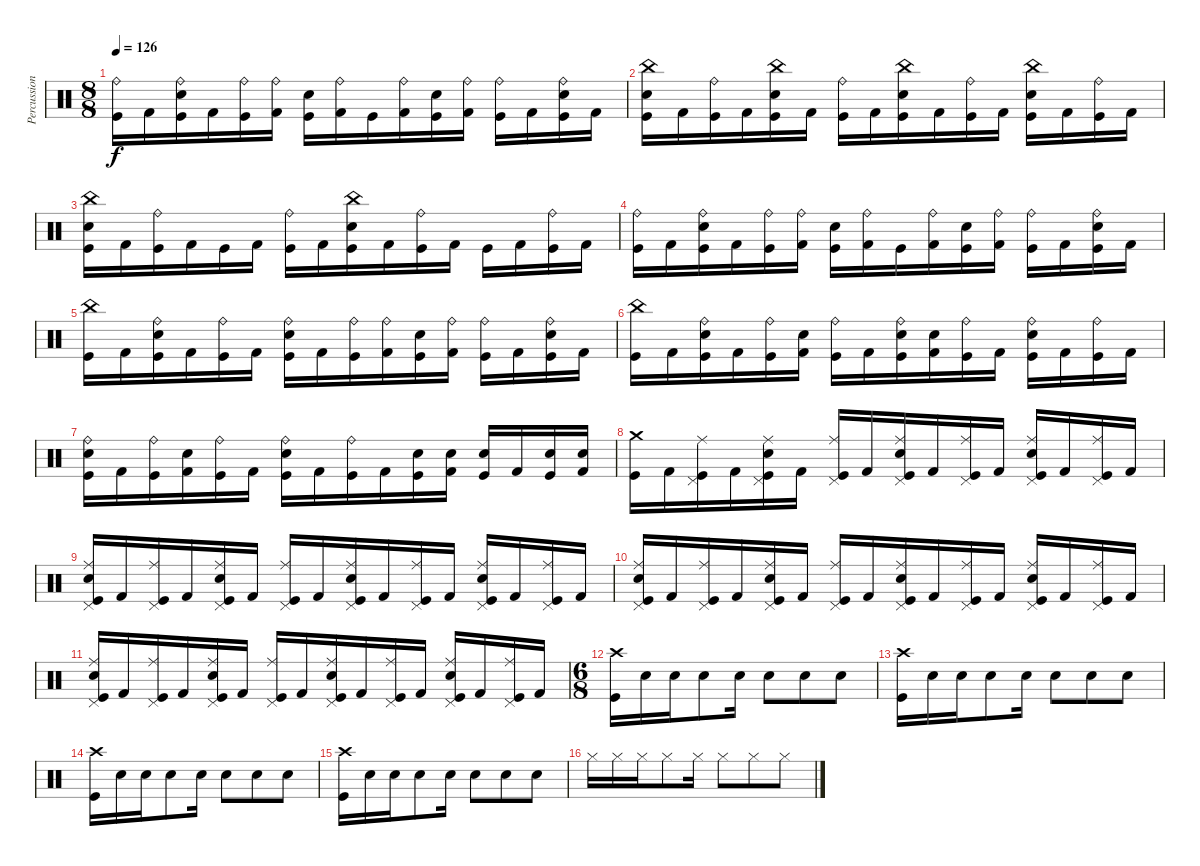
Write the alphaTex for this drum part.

\track ("Percussion" "Percussion") {instrument percussion}
\staff {score}
\articulation defaults
\ts (8 8)
\tempo 126
\clef neutral
\ks c
("Ride (bell)" "Kick (hit)").16{dy f} "Kick (hit) 2".16 ("Ride (bell)" "Electric Snare (hit)" "Kick (hit)").16 "Kick (hit) 2".16 ("Ride (bell)" "Kick (hit)").16 ("Ride (bell)" "Kick (hit) 2").16 ("Electric Snare (hit)" "Kick (hit)").16 ("Ride (bell)" "Kick (hit) 2").16 "Kick (hit)".16 ("Ride (bell)" "Kick (hit) 2").16 ("Electric Snare (hit)" "Kick (hit)").16 ("Ride (bell)" "Kick (hit) 2").16 ("Ride (bell)" "Kick (hit)").16 "Kick (hit) 2".16 ("Ride (bell)" "Electric Snare (hit)" "Kick (hit)").16 "Kick (hit) 2".16 |
("China (hit)" "Snare (hit) 2" "Kick (hit)").16 "Kick (hit) 2".16 ("Ride (bell)" "Kick (hit)").16 "Kick (hit) 2".16 ("China (hit)" "Snare (hit) 2" "Kick (hit)").16 "Kick (hit) 2".16 ("Ride (bell)" "Kick (hit)").16 "Kick (hit) 2".16 ("China (hit)" "Snare (hit) 2" "Kick (hit)").16 "Kick (hit) 2".16 ("Ride (bell)" "Kick (hit)").16 "Kick (hit) 2".16 ("China (hit)" "Snare (hit) 2" "Kick (hit)").16 "Kick (hit) 2".16 ("Ride (bell)" "Kick (hit)").16 "Kick (hit) 2".16 |
("China (hit)" "Snare (hit) 2" "Kick (hit)").16 "Kick (hit) 2".16 ("Ride (bell)" "Kick (hit)").16 "Kick (hit) 2".16 "Kick (hit)".16 "Kick (hit) 2".16 ("Ride (bell)" "Kick (hit)").16 "Kick (hit) 2".16 ("China (hit)" "Snare (hit) 2" "Kick (hit)").16 "Kick (hit) 2".16 ("Ride (bell)" "Kick (hit)").16 "Kick (hit) 2".16 "Kick (hit)".16 "Kick (hit) 2".16 ("Ride (bell)" "Kick (hit)").16 "Kick (hit) 2".16 |
("Ride (bell)" "Kick (hit)").16 "Kick (hit) 2".16 ("Ride (bell)" "Electric Snare (hit)" "Kick (hit)").16 "Kick (hit) 2".16 ("Ride (bell)" "Kick (hit)").16 ("Ride (bell)" "Kick (hit) 2").16 ("Electric Snare (hit)" "Kick (hit)").16 ("Ride (bell)" "Kick (hit) 2").16 "Kick (hit)".16 ("Ride (bell)" "Kick (hit) 2").16 ("Electric Snare (hit)" "Kick (hit)").16 ("Ride (bell)" "Kick (hit) 2").16 ("Ride (bell)" "Kick (hit)").16 "Kick (hit) 2".16 ("Ride (bell)" "Electric Snare (hit)" "Kick (hit)").16 "Kick (hit) 2".16 |
("China (hit)" "Kick (hit)").16 "Kick (hit) 2".16 ("Ride (bell)" "Electric Snare (hit)" "Kick (hit)").16 "Kick (hit) 2".16 ("Ride (bell)" "Kick (hit)").16 "Kick (hit) 2".16 ("Ride (bell)" "Electric Snare (hit)" "Kick (hit)").16 "Kick (hit) 2".16 ("Ride (bell)" "Kick (hit)").16 ("Ride (bell)" "Kick (hit) 2").16 ("Electric Snare (hit)" "Kick (hit)").16 ("Ride (bell)" "Kick (hit) 2").16 ("Ride (bell)" "Kick (hit)").16 "Kick (hit) 2".16 ("Ride (bell)" "Electric Snare (hit)" "Kick (hit)").16 "Kick (hit) 2".16 |
("China (hit)" "Kick (hit)").16 "Kick (hit) 2".16 ("Ride (bell)" "Electric Snare (hit)" "Kick (hit)").16 "Kick (hit) 2".16 ("Ride (bell)" "Kick (hit)").16 ("Electric Snare (hit)" "Kick (hit) 2").16 ("Ride (bell)" "Kick (hit)").16 "Kick (hit) 2".16 ("Ride (bell)" "Electric Snare (hit)" "Kick (hit)").16 ("Electric Snare (hit)" "Kick (hit) 2").16 ("Ride (bell)" "Kick (hit)").16 "Kick (hit) 2".16 ("Ride (bell)" "Electric Snare (hit)" "Kick (hit)").16 "Kick (hit) 2".16 ("Ride (bell)" "Kick (hit)").16 "Kick (hit) 2".16 |
("Ride (bell)" "Electric Snare (hit)" "Kick (hit)").16 "Kick (hit) 2".16 ("Ride (bell)" "Kick (hit)").16 ("Electric Snare (hit)" "Kick (hit) 2").16 ("Ride (bell)" "Kick (hit)").16 "Kick (hit) 2".16 ("Ride (bell)" "Electric Snare (hit)" "Kick (hit)").16 "Kick (hit) 2".16 ("Ride (bell)" "Kick (hit)").16 "Kick (hit) 2".16 ("Snare (hit) 2" "Kick (hit)").16 ("Snare (hit) 2" "Kick (hit) 2").16 ("Snare (hit) 2" "Kick (hit)").16 "Kick (hit) 2".16 ("Snare (hit) 2" "Kick (hit)").16 ("Snare (hit) 2" "Kick (hit) 2").16 |
("Crash medium (hit)" "Kick (hit)").16 "Kick (hit) 2".16 ("Ride (middle)" "Pedal Hi-Hat (hit)" "Kick (hit)").16 "Kick (hit) 2".16 ("Ride (middle)" "Pedal Hi-Hat (hit)" "Kick (hit)" "Snare (hit) 2").16 "Kick (hit) 2".16 ("Ride (middle)" "Pedal Hi-Hat (hit)" "Kick (hit)").16 "Kick (hit) 2".16 ("Ride (middle)" "Pedal Hi-Hat (hit)" "Kick (hit)" "Snare (hit) 2").16 "Kick (hit) 2".16 ("Ride (middle)" "Pedal Hi-Hat (hit)" "Kick (hit)").16 "Kick (hit) 2".16 ("Ride (middle)" "Pedal Hi-Hat (hit)" "Kick (hit)" "Snare (hit) 2").16 "Kick (hit) 2".16 ("Ride (middle)" "Pedal Hi-Hat (hit)" "Kick (hit)").16 "Kick (hit) 2".16 |
("Snare (hit) 2" "Ride (middle)" "Kick (hit)" "Pedal Hi-Hat (hit)").16 "Kick (hit) 2".16 ("Ride (middle)" "Pedal Hi-Hat (hit)" "Kick (hit)").16 "Kick (hit) 2".16 ("Ride (middle)" "Pedal Hi-Hat (hit)" "Kick (hit)" "Snare (hit) 2").16 "Kick (hit) 2".16 ("Ride (middle)" "Pedal Hi-Hat (hit)" "Kick (hit)").16 "Kick (hit) 2".16 ("Ride (middle)" "Pedal Hi-Hat (hit)" "Kick (hit)" "Snare (hit) 2").16 "Kick (hit) 2".16 ("Ride (middle)" "Pedal Hi-Hat (hit)" "Kick (hit)").16 "Kick (hit) 2".16 ("Ride (middle)" "Pedal Hi-Hat (hit)" "Kick (hit)" "Snare (hit) 2").16 "Kick (hit) 2".16 ("Ride (middle)" "Pedal Hi-Hat (hit)" "Kick (hit)").16 "Kick (hit) 2".16 |
("Snare (hit) 2" "Ride (middle)" "Kick (hit)" "Pedal Hi-Hat (hit)").16 "Kick (hit) 2".16 ("Ride (middle)" "Pedal Hi-Hat (hit)" "Kick (hit)").16 "Kick (hit) 2".16 ("Ride (middle)" "Pedal Hi-Hat (hit)" "Kick (hit)" "Snare (hit) 2").16 "Kick (hit) 2".16 ("Ride (middle)" "Pedal Hi-Hat (hit)" "Kick (hit)").16 "Kick (hit) 2".16 ("Ride (middle)" "Pedal Hi-Hat (hit)" "Kick (hit)" "Snare (hit) 2").16 "Kick (hit) 2".16 ("Ride (middle)" "Pedal Hi-Hat (hit)" "Kick (hit)").16 "Kick (hit) 2".16 ("Ride (middle)" "Pedal Hi-Hat (hit)" "Kick (hit)" "Snare (hit) 2").16 "Kick (hit) 2".16 ("Ride (middle)" "Pedal Hi-Hat (hit)" "Kick (hit)").16 "Kick (hit) 2".16 |
("Snare (hit) 2" "Ride (middle)" "Kick (hit)" "Pedal Hi-Hat (hit)").16 "Kick (hit) 2".16 ("Ride (middle)" "Pedal Hi-Hat (hit)" "Kick (hit)").16 "Kick (hit) 2".16 ("Ride (middle)" "Pedal Hi-Hat (hit)" "Kick (hit)" "Snare (hit) 2").16 "Kick (hit) 2".16 ("Ride (middle)" "Pedal Hi-Hat (hit)" "Kick (hit)").16 "Kick (hit) 2".16 ("Ride (middle)" "Pedal Hi-Hat (hit)" "Kick (hit)" "Snare (hit) 2").16 "Kick (hit) 2".16 ("Ride (middle)" "Pedal Hi-Hat (hit)" "Kick (hit)").16 "Kick (hit) 2".16 ("Ride (middle)" "Pedal Hi-Hat (hit)" "Kick (hit)" "Snare (hit) 2").16 "Kick (hit) 2".16 ("Ride (middle)" "Pedal Hi-Hat (hit)" "Kick (hit)").16 "Kick (hit) 2".16 |
\ts (6 8)
("Kick (hit)" "Crash high (hit)").16 "Snare (hit) 2".16 "Snare (hit) 2".16 "Snare (hit) 2".8 "Snare (hit) 2".16 "Snare (hit) 2".8 "Snare (hit) 2".8 "Snare (hit) 2".8 |
("Kick (hit)" "Crash high (hit)").16 "Snare (hit) 2".16 "Snare (hit) 2".16 "Snare (hit) 2".8 "Snare (hit) 2".16 "Snare (hit) 2".8 "Snare (hit) 2".8 "Snare (hit) 2".8 |
("Kick (hit)" "Crash high (hit)").16 "Snare (hit) 2".16 "Snare (hit) 2".16 "Snare (hit) 2".8 "Snare (hit) 2".16 "Snare (hit) 2".8 "Snare (hit) 2".8 "Snare (hit) 2".8 |
("Kick (hit)" "Crash high (hit)").16 "Snare (hit) 2".16 "Snare (hit) 2".16 "Snare (hit) 2".8 "Snare (hit) 2".16 "Snare (hit) 2".8 "Snare (hit) 2".8 "Snare (hit) 2".8 |
"Hi-Hat (closed)".16 "Hi-Hat (closed)".16 "Hi-Hat (closed)".16 "Hi-Hat (closed)".8 "Hi-Hat (closed)".16 "Hi-Hat (closed)".8 "Hi-Hat (closed)".8 "Hi-Hat (closed)".8
